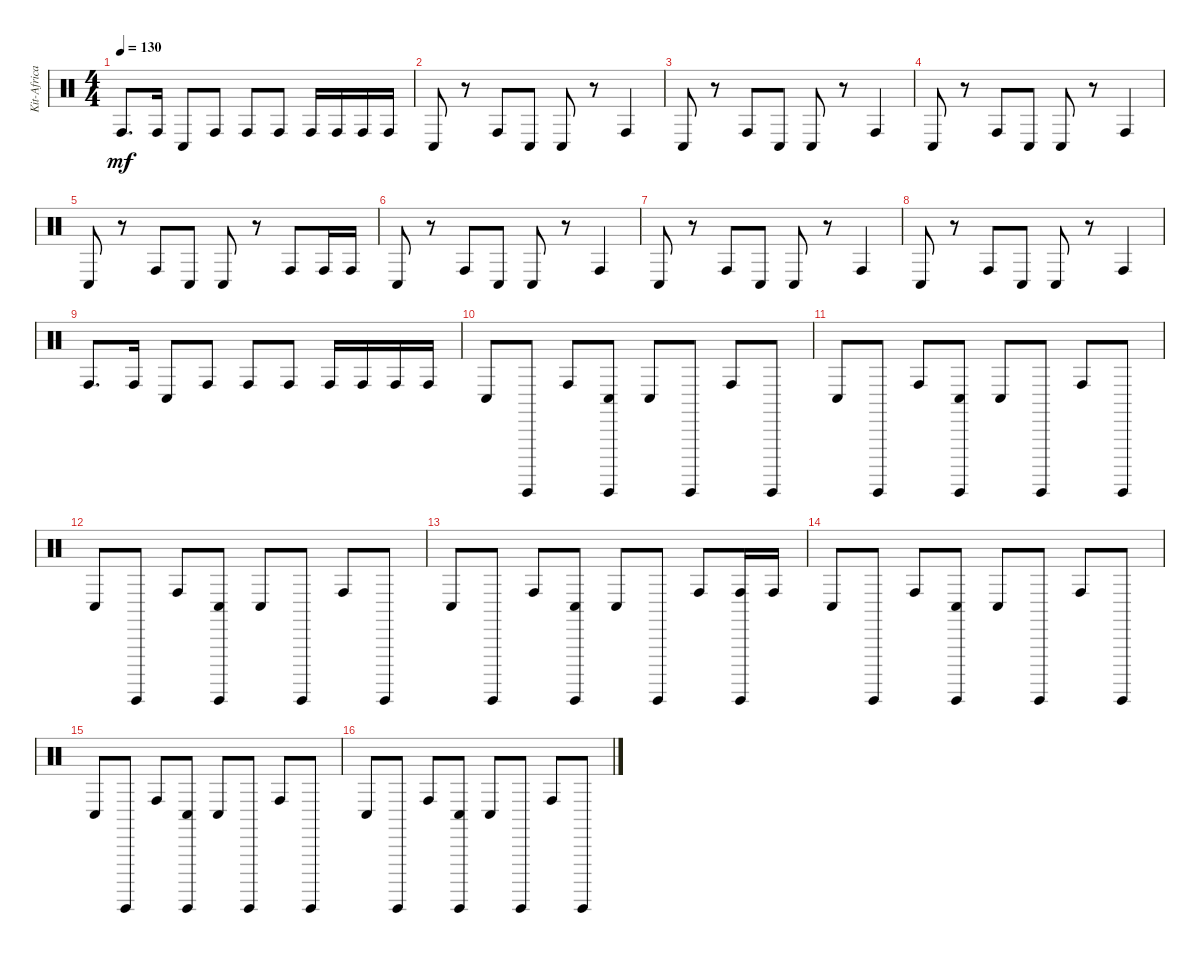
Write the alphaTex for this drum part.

\track ("Kit-Africa" "Kit-Africa") {instrument percussion}
\staff {score}
\articulation defaults
\ts (4 4)
\tempo 130
\clef neutral
\ks c "Conga high (hit)".8{d dy mf} "Conga high (hit)".16 "Conga low (hit)".8 "Conga high (hit)".8 "Conga high (hit)".8 "Conga high (hit)".8 "Conga high (hit)".16 "Conga high (hit)".16 "Conga high (hit)".16 "Conga high (hit)".16
|
"Conga low (hit)".8 r.8 "Conga high (hit)".8 "Conga low (hit)".8 "Conga low (hit)".8 r.8 "Conga high (hit)".4 |
"Conga low (hit)".8 r.8 "Conga high (hit)".8 "Conga low (hit)".8 "Conga low (hit)".8 r.8 "Conga high (hit)".4 |
"Conga low (hit)".8 r.8 "Conga high (hit)".8 "Conga low (hit)".8 "Conga low (hit)".8 r.8 "Conga high (hit)".4 |
"Conga low (hit)".8 r.8 "Conga high (hit)".8 "Conga low (hit)".8 "Conga low (hit)".8 r.8 "Conga high (hit)".8 "Conga high (hit)".16 "Conga high (hit)".16 |
"Conga low (hit)".8 r.8 "Conga high (hit)".8 "Conga low (hit)".8 "Conga low (hit)".8 r.8 "Conga high (hit)".4 |
"Conga low (hit)".8 r.8 "Conga high (hit)".8 "Conga low (hit)".8 "Conga low (hit)".8 r.8 "Conga high (hit)".4 |
"Conga low (hit)".8 r.8 "Conga high (hit)".8 "Conga low (hit)".8 "Conga low (hit)".8 r.8 "Conga high (hit)".4 |
"Conga high (hit)".8{d} "Conga high (hit)".16 "Conga low (hit)".8 "Conga high (hit)".8 "Conga high (hit)".8 "Conga high (hit)".8 "Conga high (hit)".16 "Conga high (hit)".16 "Conga high (hit)".16 "Conga high (hit)".16 |
"Conga low (hit)".8 "Guiro (hit)".8 "Conga high (hit)".8 ("Conga low (hit)" "Guiro (hit)").8 "Conga low (hit)".8 "Guiro (hit)".8 "Conga high (hit)".8 "Guiro (hit)".8 |
"Conga low (hit)".8 "Guiro (hit)".8 "Conga high (hit)".8 ("Conga low (hit)" "Guiro (hit)").8 "Conga low (hit)".8 "Guiro (hit)".8 "Conga high (hit)".8 "Guiro (hit)".8 |
"Conga low (hit)".8 "Guiro (hit)".8 "Conga high (hit)".8 ("Conga low (hit)" "Guiro (hit)").8 "Conga low (hit)".8 "Guiro (hit)".8 "Conga high (hit)".8 "Guiro (hit)".8 |
"Conga low (hit)".8 "Guiro (hit)".8 "Conga high (hit)".8 ("Conga low (hit)" "Guiro (hit)").8 "Conga low (hit)".8 "Guiro (hit)".8 "Conga high (hit)".8 ("Conga high (hit)" "Guiro (hit)").16 "Conga high (hit)".16 |
"Conga low (hit)".8 "Guiro (hit)".8 "Conga high (hit)".8 ("Conga low (hit)" "Guiro (hit)").8 "Conga low (hit)".8 "Guiro (hit)".8 "Conga high (hit)".8 "Guiro (hit)".8 |
"Conga low (hit)".8 "Guiro (hit)".8 "Conga high (hit)".8 ("Conga low (hit)" "Guiro (hit)").8 "Conga low (hit)".8 "Guiro (hit)".8 "Conga high (hit)".8 "Guiro (hit)".8 |
"Conga low (hit)".8 "Guiro (hit)".8 "Conga high (hit)".8 ("Conga low (hit)" "Guiro (hit)").8 "Conga low (hit)".8 "Guiro (hit)".8 "Conga high (hit)".8 "Guiro (hit)".8
